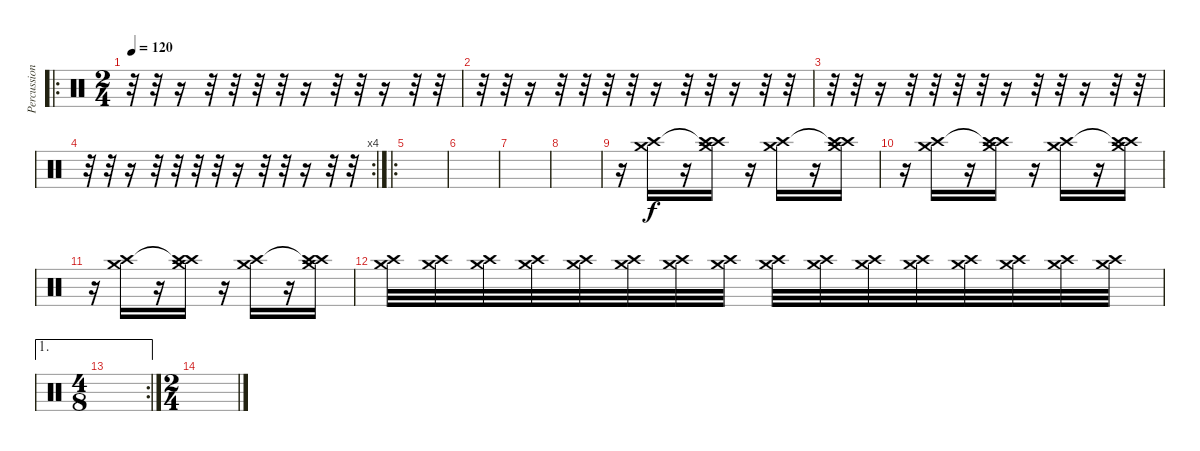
\track ("Percussion 2" "Percussion") {instrument percussion}
\staff {score}
\articulation defaults
\ro
\ts (2 4)
\tempo 120
\clef neutral
\ks c
r.32{dy f} r.32 r.16 r.32 r.32 r.32 r.32 r.16 r.32 r.32 r.16 r.32 r.32 |
r.32 r.32 r.16 r.32 r.32 r.32 r.32 r.16 r.32 r.32 r.16 r.32 r.32 |
r.32 r.32 r.16 r.32 r.32 r.32 r.32 r.16 r.32 r.32 r.16 r.32 r.32 |
\rc 4
r.32 r.32 r.16 r.32 r.32 r.32 r.32 r.16 r.32 r.32 r.16 r.32 r.32 |
\ro
|
|
|
|
r.16 ("Crash high (hit)" "Crash medium (hit)").16 r.16 ("Crash high (hit)"{t} "Crash high (hit)" "Crash medium (hit)").16 r.16 ("Crash high (hit)" "Crash medium (hit)").16 r.16 ("Crash high (hit)"{t} "Crash high (hit)" "Crash medium (hit)").16 |
r.16 ("Crash high (hit)" "Crash medium (hit)").16 r.16 ("Crash high (hit)"{t} "Crash high (hit)" "Crash medium (hit)").16 r.16 ("Crash high (hit)" "Crash medium (hit)").16 r.16 ("Crash high (hit)"{t} "Crash high (hit)" "Crash medium (hit)").16 |
r.16 ("Crash high (hit)" "Crash medium (hit)").16 r.16 ("Crash high (hit)"{t} "Crash high (hit)" "Crash medium (hit)").16 r.16 ("Crash high (hit)" "Crash medium (hit)").16 r.16 ("Crash high (hit)"{t} "Crash high (hit)" "Crash medium (hit)").16 |
("Crash high (hit)" "Crash medium (hit)").32 ("Crash high (hit)" "Crash medium (hit)").32 ("Crash high (hit)" "Crash medium (hit)").32 ("Crash high (hit)" "Crash medium (hit)").32 ("Crash high (hit)" "Crash medium (hit)").32 ("Crash high (hit)" "Crash medium (hit)").32 ("Crash high (hit)" "Crash medium (hit)").32 ("Crash high (hit)" "Crash medium (hit)").32 ("Crash high (hit)" "Crash medium (hit)").32 ("Crash high (hit)" "Crash medium (hit)").32 ("Crash high (hit)" "Crash medium (hit)").32 ("Crash high (hit)" "Crash medium (hit)").32 ("Crash high (hit)" "Crash medium (hit)").32 ("Crash high (hit)" "Crash medium (hit)").32 ("Crash high (hit)" "Crash medium (hit)").32 ("Crash high (hit)" "Crash medium (hit)").32 |
\ae 1
\rc 2
\ts (4 8)
|
\ts (2 4)
